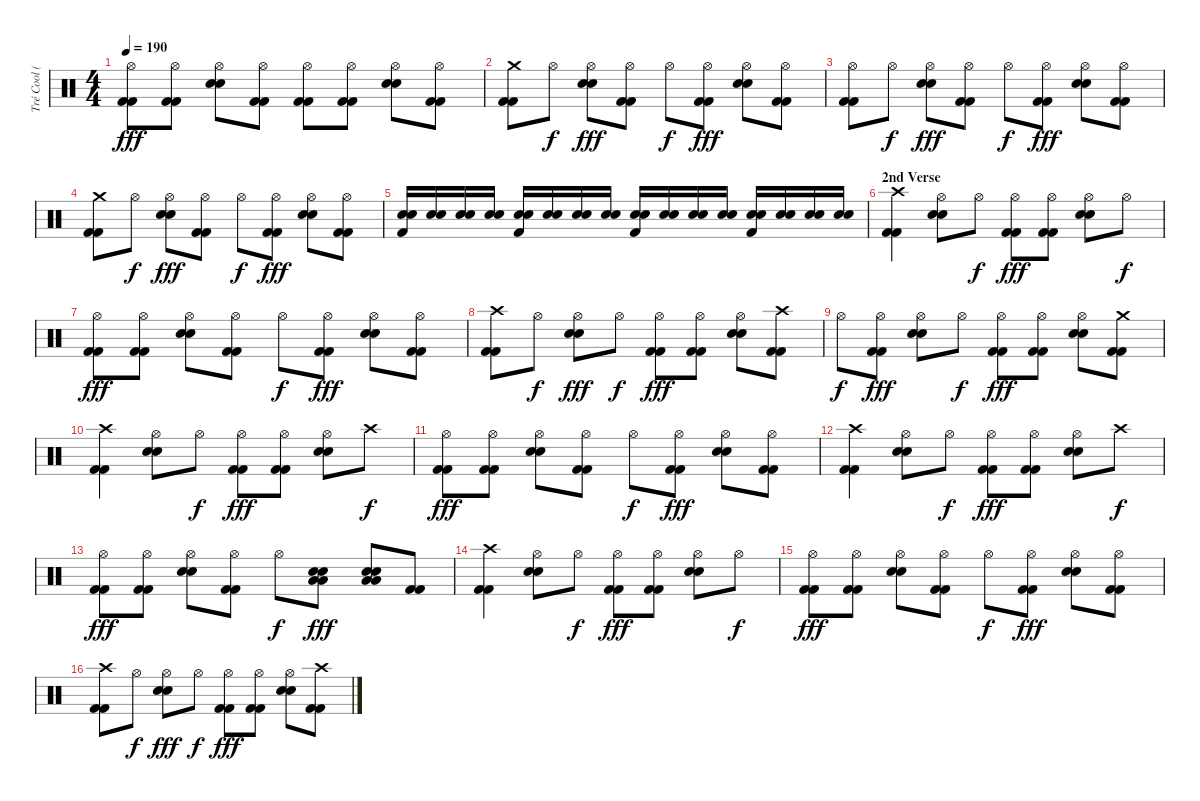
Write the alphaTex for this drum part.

\track ("Tré Cool (Drums)" "Tré Cool (") {instrument percussion}
\staff {score}
\articulation defaults
\ts (4 4)
\tempo 190
\clef neutral
\ks c
("Kick (hit) 2" "Kick (hit) 2" "Hi-Hat (open)").8{dy fff} ("Kick (hit) 2" "Kick (hit) 2" "Hi-Hat (open)").8 ("Electric Snare (hit)" "Electric Snare (hit)" "Hi-Hat (open)").8 ("Kick (hit) 2" "Kick (hit) 2" "Hi-Hat (open)").8 ("Kick (hit) 2" "Kick (hit) 2" "Hi-Hat (open)").8 ("Kick (hit) 2" "Kick (hit) 2" "Hi-Hat (open)").8 ("Electric Snare (hit)" "Electric Snare (hit)" "Hi-Hat (open)").8 ("Kick (hit) 2" "Kick (hit) 2" "Hi-Hat (open)").8 |
("Kick (hit) 2" "Kick (hit) 2" "Crash medium (hit)").8 "Hi-Hat (open)".8{dy f} ("Electric Snare (hit)" "Electric Snare (hit)" "Hi-Hat (open)").8{dy fff} ("Kick (hit) 2" "Kick (hit) 2" "Hi-Hat (open)").8 "Hi-Hat (open)".8{dy f} ("Kick (hit) 2" "Kick (hit) 2" "Hi-Hat (open)").8{dy fff} ("Electric Snare (hit)" "Electric Snare (hit)" "Hi-Hat (open)").8 ("Kick (hit) 2" "Kick (hit) 2" "Hi-Hat (open)").8 |
("Kick (hit) 2" "Kick (hit) 2" "Hi-Hat (open)").8 "Hi-Hat (open)".8{dy f} ("Electric Snare (hit)" "Electric Snare (hit)" "Hi-Hat (open)").8{dy fff} ("Kick (hit) 2" "Kick (hit) 2" "Hi-Hat (open)").8 "Hi-Hat (open)".8{dy f} ("Kick (hit) 2" "Kick (hit) 2" "Hi-Hat (open)").8{dy fff} ("Electric Snare (hit)" "Electric Snare (hit)" "Hi-Hat (open)").8 ("Kick (hit) 2" "Kick (hit) 2" "Hi-Hat (open)").8 |
("Kick (hit) 2" "Kick (hit) 2" "Crash medium (hit)").8 "Hi-Hat (open)".8{dy f} ("Electric Snare (hit)" "Electric Snare (hit)" "Hi-Hat (open)").8{dy fff} ("Kick (hit) 2" "Kick (hit) 2" "Hi-Hat (open)").8 "Hi-Hat (open)".8{dy f} ("Kick (hit) 2" "Kick (hit) 2" "Hi-Hat (open)").8{dy fff} ("Electric Snare (hit)" "Electric Snare (hit)" "Hi-Hat (open)").8 ("Kick (hit) 2" "Kick (hit) 2" "Hi-Hat (open)").8 |
("Electric Snare (hit)" "Electric Snare (hit)" "Kick (hit) 2").16 ("Electric Snare (hit)" "Electric Snare (hit)").16 ("Electric Snare (hit)" "Electric Snare (hit)").16 ("Electric Snare (hit)" "Electric Snare (hit)").16 ("Electric Snare (hit)" "Electric Snare (hit)" "Kick (hit) 2").16 ("Electric Snare (hit)" "Electric Snare (hit)").16 ("Electric Snare (hit)" "Electric Snare (hit)").16 ("Electric Snare (hit)" "Electric Snare (hit)").16 ("Electric Snare (hit)" "Electric Snare (hit)" "Kick (hit) 2").16 ("Electric Snare (hit)" "Electric Snare (hit)").16 ("Electric Snare (hit)" "Electric Snare (hit)").16 ("Electric Snare (hit)" "Electric Snare (hit)").16 ("Electric Snare (hit)" "Electric Snare (hit)" "Kick (hit) 2").16 ("Electric Snare (hit)" "Electric Snare (hit)").16 ("Electric Snare (hit)" "Electric Snare (hit)").16 ("Electric Snare (hit)" "Electric Snare (hit)").16 |
\section ("" "2nd Verse")
("Kick (hit) 2" "Kick (hit) 2" "Crash high (hit)").4 ("Electric Snare (hit)" "Electric Snare (hit)" "Hi-Hat (open)").8 "Hi-Hat (open)".8{dy f} ("Kick (hit) 2" "Kick (hit) 2" "Hi-Hat (open)").8{dy fff} ("Kick (hit) 2" "Kick (hit) 2" "Hi-Hat (open)").8 ("Electric Snare (hit)" "Electric Snare (hit)" "Hi-Hat (open)").8 "Hi-Hat (open)".8{dy f} |
("Kick (hit) 2" "Kick (hit) 2" "Hi-Hat (open)").8{dy fff} ("Kick (hit) 2" "Kick (hit) 2" "Hi-Hat (open)").8 ("Electric Snare (hit)" "Electric Snare (hit)" "Hi-Hat (open)").8 ("Kick (hit) 2" "Kick (hit) 2" "Hi-Hat (open)").8 "Hi-Hat (open)".8{dy f} ("Kick (hit) 2" "Kick (hit) 2" "Hi-Hat (open)").8{dy fff} ("Electric Snare (hit)" "Electric Snare (hit)" "Hi-Hat (open)").8 ("Kick (hit) 2" "Kick (hit) 2" "Hi-Hat (open)").8 |
("Kick (hit) 2" "Kick (hit) 2" "Crash high (hit)").8 "Hi-Hat (open)".8{dy f} ("Electric Snare (hit)" "Electric Snare (hit)" "Hi-Hat (open)").8{dy fff} "Hi-Hat (open)".8{dy f} ("Kick (hit) 2" "Kick (hit) 2" "Hi-Hat (open)").8{dy fff} ("Kick (hit) 2" "Kick (hit) 2" "Hi-Hat (open)").8 ("Electric Snare (hit)" "Electric Snare (hit)" "Hi-Hat (open)").8 ("Kick (hit) 2" "Kick (hit) 2" "Crash high (hit)").8 |
"Hi-Hat (open)".8{dy f} ("Kick (hit) 2" "Kick (hit) 2" "Hi-Hat (open)").8{dy fff} ("Electric Snare (hit)" "Electric Snare (hit)" "Hi-Hat (open)").8 "Hi-Hat (open)".8{dy f} ("Kick (hit) 2" "Kick (hit) 2" "Hi-Hat (open)").8{dy fff} ("Kick (hit) 2" "Kick (hit) 2" "Hi-Hat (open)").8 ("Electric Snare (hit)" "Electric Snare (hit)" "Hi-Hat (open)").8 ("Kick (hit) 2" "Kick (hit) 2" "Crash medium (hit)").8 |
("Kick (hit) 2" "Kick (hit) 2" "Crash high (hit)").4 ("Electric Snare (hit)" "Electric Snare (hit)" "Hi-Hat (open)").8 "Hi-Hat (open)".8{dy f} ("Kick (hit) 2" "Kick (hit) 2" "Hi-Hat (open)").8{dy fff} ("Kick (hit) 2" "Kick (hit) 2" "Hi-Hat (open)").8 ("Electric Snare (hit)" "Electric Snare (hit)" "Hi-Hat (open)").8 "Crash high (hit)".8{dy f} |
("Kick (hit) 2" "Kick (hit) 2" "Hi-Hat (open)").8{dy fff} ("Kick (hit) 2" "Kick (hit) 2" "Hi-Hat (open)").8 ("Electric Snare (hit)" "Electric Snare (hit)" "Hi-Hat (open)").8 ("Kick (hit) 2" "Kick (hit) 2" "Hi-Hat (open)").8 "Hi-Hat (open)".8{dy f} ("Kick (hit) 2" "Kick (hit) 2" "Hi-Hat (open)").8{dy fff} ("Electric Snare (hit)" "Electric Snare (hit)" "Hi-Hat (open)").8 ("Kick (hit) 2" "Kick (hit) 2" "Hi-Hat (open)").8 |
("Kick (hit) 2" "Kick (hit) 2" "Crash high (hit)").4 ("Electric Snare (hit)" "Electric Snare (hit)" "Hi-Hat (open)").8 "Hi-Hat (open)".8{dy f} ("Kick (hit) 2" "Kick (hit) 2" "Hi-Hat (open)").8{dy fff} ("Kick (hit) 2" "Kick (hit) 2" "Hi-Hat (open)").8 ("Electric Snare (hit)" "Electric Snare (hit)" "Hi-Hat (open)").8 "Crash high (hit)".8{dy f} |
("Kick (hit) 2" "Kick (hit) 2" "Hi-Hat (open)").8{dy fff} ("Kick (hit) 2" "Kick (hit) 2" "Hi-Hat (open)").8 ("Electric Snare (hit)" "Electric Snare (hit)" "Hi-Hat (open)").8 ("Kick (hit) 2" "Kick (hit) 2" "Hi-Hat (open)").8 "Hi-Hat (open)".8{dy f} ("Electric Snare (hit)" "Electric Snare (hit)" "Low Floor Tom (hit)" "Low Floor Tom (hit)").8{dy fff} ("Electric Snare (hit)" "Electric Snare (hit)" "Low Floor Tom (hit)" "Low Floor Tom (hit)").8 ("Kick (hit) 2" "Kick (hit) 2").8 |
("Kick (hit) 2" "Kick (hit) 2" "Crash high (hit)").4 ("Electric Snare (hit)" "Electric Snare (hit)" "Hi-Hat (open)").8 "Hi-Hat (open)".8{dy f} ("Kick (hit) 2" "Kick (hit) 2" "Hi-Hat (open)").8{dy fff} ("Kick (hit) 2" "Kick (hit) 2" "Hi-Hat (open)").8 ("Electric Snare (hit)" "Electric Snare (hit)" "Hi-Hat (open)").8 "Hi-Hat (open)".8{dy f} |
("Kick (hit) 2" "Kick (hit) 2" "Hi-Hat (open)").8{dy fff} ("Kick (hit) 2" "Kick (hit) 2" "Hi-Hat (open)").8 ("Electric Snare (hit)" "Electric Snare (hit)" "Hi-Hat (open)").8 ("Kick (hit) 2" "Kick (hit) 2" "Hi-Hat (open)").8 "Hi-Hat (open)".8{dy f} ("Kick (hit) 2" "Kick (hit) 2" "Hi-Hat (open)").8{dy fff} ("Electric Snare (hit)" "Electric Snare (hit)" "Hi-Hat (open)").8 ("Kick (hit) 2" "Kick (hit) 2" "Hi-Hat (open)").8 |
("Kick (hit) 2" "Kick (hit) 2" "Crash high (hit)").8 "Hi-Hat (open)".8{dy f} ("Electric Snare (hit)" "Electric Snare (hit)" "Hi-Hat (open)").8{dy fff} "Hi-Hat (open)".8{dy f} ("Kick (hit) 2" "Kick (hit) 2" "Hi-Hat (open)").8{dy fff} ("Kick (hit) 2" "Kick (hit) 2" "Hi-Hat (open)").8 ("Electric Snare (hit)" "Electric Snare (hit)" "Hi-Hat (open)").8 ("Kick (hit) 2" "Kick (hit) 2" "Crash high (hit)").8
